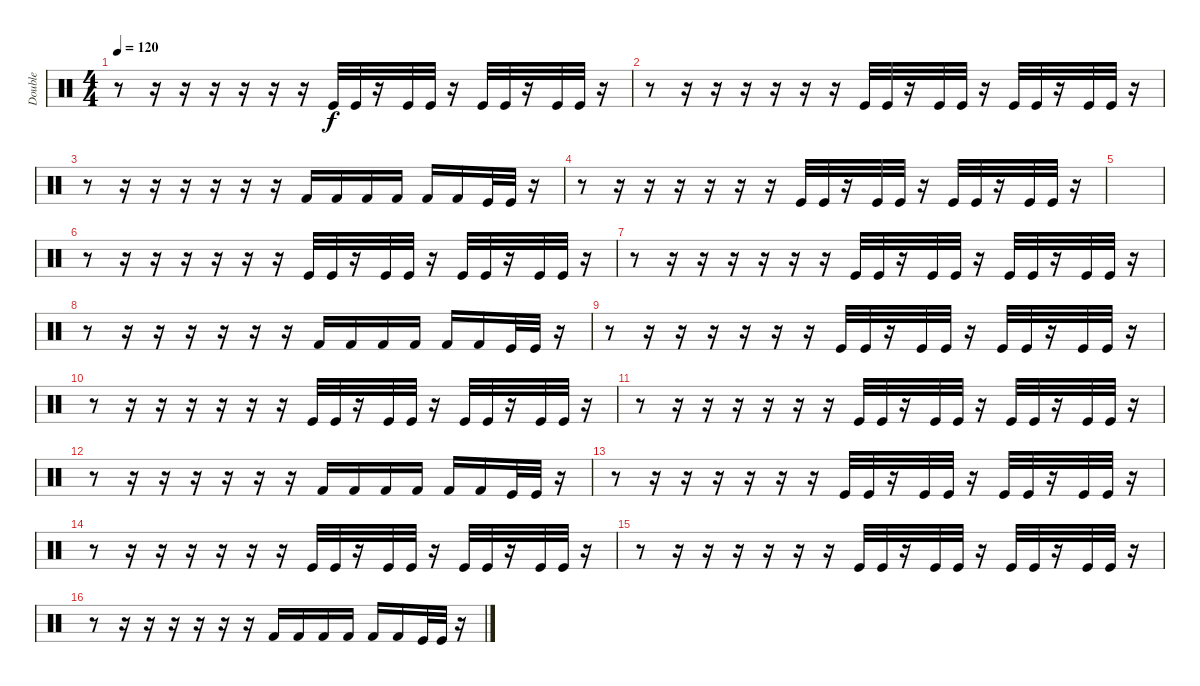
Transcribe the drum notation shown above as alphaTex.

\track ("Double" "Double") {instrument percussion}
\staff {score}
\articulation defaults
\ts (4 4)
\tempo 120
\clef neutral
\ks c
r.8{dy f} r.16 r.16 r.16 r.16 r.16 r.16 "Kick (hit)".32 "Kick (hit)".32 r.16 "Kick (hit)".32 "Kick (hit)".32 r.16 "Kick (hit)".32 "Kick (hit)".32 r.16 "Kick (hit)".32 "Kick (hit)".32 r.16 |
r.8 r.16 r.16 r.16 r.16 r.16 r.16 "Kick (hit)".32 "Kick (hit)".32 r.16 "Kick (hit)".32 "Kick (hit)".32 r.16 "Kick (hit)".32 "Kick (hit)".32 r.16 "Kick (hit)".32 "Kick (hit)".32 r.16 |
r.8 r.16 r.16 r.16 r.16 r.16 r.16 "Kick (hit) 2".16 "Kick (hit) 2".16 "Kick (hit) 2".16 "Kick (hit) 2".16 "Kick (hit) 2".16 "Kick (hit) 2".16 "Kick (hit)".32 "Kick (hit)".32 r.16 |
r.8 r.16 r.16 r.16 r.16 r.16 r.16 "Kick (hit)".32 "Kick (hit)".32 r.16 "Kick (hit)".32 "Kick (hit)".32 r.16 "Kick (hit)".32 "Kick (hit)".32 r.16 "Kick (hit)".32 "Kick (hit)".32 r.16 |
|
r.8 r.16 r.16 r.16 r.16 r.16 r.16 "Kick (hit)".32 "Kick (hit)".32 r.16 "Kick (hit)".32 "Kick (hit)".32 r.16 "Kick (hit)".32 "Kick (hit)".32 r.16 "Kick (hit)".32 "Kick (hit)".32 r.16 |
r.8 r.16 r.16 r.16 r.16 r.16 r.16 "Kick (hit)".32 "Kick (hit)".32 r.16 "Kick (hit)".32 "Kick (hit)".32 r.16 "Kick (hit)".32 "Kick (hit)".32 r.16 "Kick (hit)".32 "Kick (hit)".32 r.16 |
r.8 r.16 r.16 r.16 r.16 r.16 r.16 "Kick (hit) 2".16 "Kick (hit) 2".16 "Kick (hit) 2".16 "Kick (hit) 2".16 "Kick (hit) 2".16 "Kick (hit) 2".16 "Kick (hit)".32 "Kick (hit)".32 r.16 |
r.8 r.16 r.16 r.16 r.16 r.16 r.16 "Kick (hit)".32 "Kick (hit)".32 r.16 "Kick (hit)".32 "Kick (hit)".32 r.16 "Kick (hit)".32 "Kick (hit)".32 r.16 "Kick (hit)".32 "Kick (hit)".32 r.16 |
r.8 r.16 r.16 r.16 r.16 r.16 r.16 "Kick (hit)".32 "Kick (hit)".32 r.16 "Kick (hit)".32 "Kick (hit)".32 r.16 "Kick (hit)".32 "Kick (hit)".32 r.16 "Kick (hit)".32 "Kick (hit)".32 r.16 |
r.8 r.16 r.16 r.16 r.16 r.16 r.16 "Kick (hit)".32 "Kick (hit)".32 r.16 "Kick (hit)".32 "Kick (hit)".32 r.16 "Kick (hit)".32 "Kick (hit)".32 r.16 "Kick (hit)".32 "Kick (hit)".32 r.16 |
r.8 r.16 r.16 r.16 r.16 r.16 r.16 "Kick (hit) 2".16 "Kick (hit) 2".16 "Kick (hit) 2".16 "Kick (hit) 2".16 "Kick (hit) 2".16 "Kick (hit) 2".16 "Kick (hit)".32 "Kick (hit)".32 r.16 |
r.8 r.16 r.16 r.16 r.16 r.16 r.16 "Kick (hit)".32 "Kick (hit)".32 r.16 "Kick (hit)".32 "Kick (hit)".32 r.16 "Kick (hit)".32 "Kick (hit)".32 r.16 "Kick (hit)".32 "Kick (hit)".32 r.16 |
r.8 r.16 r.16 r.16 r.16 r.16 r.16 "Kick (hit)".32 "Kick (hit)".32 r.16 "Kick (hit)".32 "Kick (hit)".32 r.16 "Kick (hit)".32 "Kick (hit)".32 r.16 "Kick (hit)".32 "Kick (hit)".32 r.16 |
r.8 r.16 r.16 r.16 r.16 r.16 r.16 "Kick (hit)".32 "Kick (hit)".32 r.16 "Kick (hit)".32 "Kick (hit)".32 r.16 "Kick (hit)".32 "Kick (hit)".32 r.16 "Kick (hit)".32 "Kick (hit)".32 r.16 |
r.8 r.16 r.16 r.16 r.16 r.16 r.16 "Kick (hit) 2".16 "Kick (hit) 2".16 "Kick (hit) 2".16 "Kick (hit) 2".16 "Kick (hit) 2".16 "Kick (hit) 2".16 "Kick (hit)".32 "Kick (hit)".32 r.16
